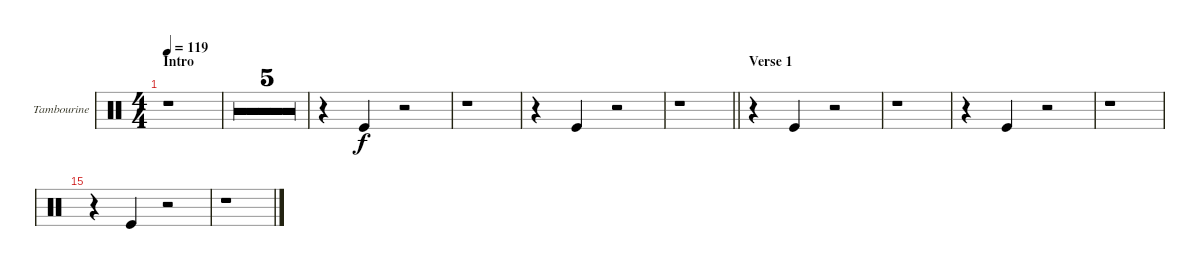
\defaultSystemsLayout 4
\bracketExtendMode groupsimilarinstruments
\useSystemSignSeparator
\multiBarRest
\multiTrackTrackNamePolicy allsystems
\firstSystemTrackNameMode fullname
\firstSystemTrackNameOrientation horizontal
\otherSystemsTrackNameOrientation horizontal
\defaultBarNumberDisplay FirstOfSystem
\track ("Tambourine" "Tamb.") {multiBarRest instrument percussion}
\staff {score}
\articulation defaults
\ts (4 4)
\section ("" "Intro")
\tempo 119
\clef neutral
\ks aminor
r.1{dy f} |
r.1 |
r.1 |
r.1 |
r.1 |
r.1 |
r.4 "Kick (hit)".4 r.2 |
r.1 |
r.4 "Kick (hit)".4 r.2 |
\barLineRight lightlight
r.1 |
\section ("" "Verse 1")
r.4 "Kick (hit)".4 r.2 |
r.1 |
r.4 "Kick (hit)".4 r.2 |
r.1 |
r.4 "Kick (hit)".4 r.2 |
r.1
